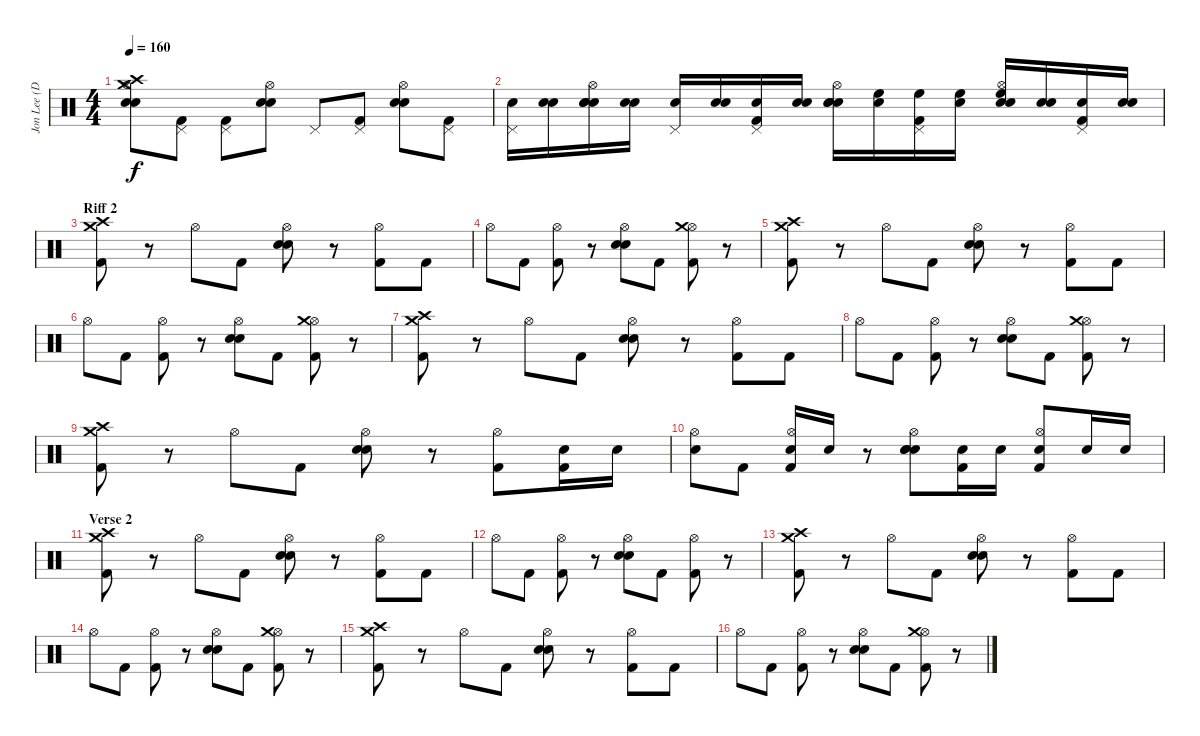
\track ("Jon Lee (Drums)" "Jon Lee (D") {instrument percussion}
\staff {score}
\articulation defaults
\ts (4 4)
\tempo 160
\clef neutral
\ks c
("Snare (hit) 2" "Electric Snare (hit)" "Crash medium (hit)" "Hi-Hat (open)" "Crash high (hit)").8{dy f} ("Kick (hit) 2" "Pedal Hi-Hat (hit)").8 ("Kick (hit) 2" "Pedal Hi-Hat (hit)").8 ("Snare (hit) 2" "Electric Snare (hit)" "Hi-Hat (open)").8 "Pedal Hi-Hat (hit)".8 ("Kick (hit) 2" "Pedal Hi-Hat (hit)").8 ("Snare (hit) 2" "Electric Snare (hit)" "Hi-Hat (open)").8 ("Kick (hit) 2" "Pedal Hi-Hat (hit)").8 |
("Electric Snare (hit)" "Pedal Hi-Hat (hit)").16 ("Electric Snare (hit)" "Snare (hit) 2").16 ("Snare (hit) 2" "Electric Snare (hit)" "Electric Snare (hit)" "Hi-Hat (open)").16 ("Electric Snare (hit)" "Snare (hit) 2").16 ("Electric Snare (hit)" "Pedal Hi-Hat (hit)").16 ("Electric Snare (hit)" "Snare (hit) 2").16 ("Kick (hit) 2" "Electric Snare (hit)" "Pedal Hi-Hat (hit)").16 ("Electric Snare (hit)" "Snare (hit) 2").16 ("Snare (hit) 2" "Electric Snare (hit)" "Electric Snare (hit)" "Hi-Hat (open)").16 ("High Floor Tom (hit)" "Snare (hit) 2").16 ("Kick (hit) 2" "High Floor Tom (hit)" "Pedal Hi-Hat (hit)").16 ("High Floor Tom (hit)" "Snare (hit) 2").16 ("Snare (hit) 2" "Electric Snare (hit)" "High Floor Tom (hit)" "Hi-Hat (open)").16 ("Electric Snare (hit)" "Snare (hit) 2").16 ("Kick (hit) 2" "Electric Snare (hit)" "Pedal Hi-Hat (hit)").16 ("Electric Snare (hit)" "Snare (hit) 2").16 |
\section ("" "Riff 2")
("Crash high (hit)" "Crash medium (hit)" "Kick (hit) 2").8 r.8 "Hi-Hat (open)".8 "Kick (hit) 2".8 ("Hi-Hat (open)" "Electric Snare (hit)" "Snare (hit) 2").8 r.8 ("Hi-Hat (open)" "Kick (hit) 2").8 "Kick (hit) 2".8 |
"Hi-Hat (open)".8 "Kick (hit) 2".8 ("Hi-Hat (open)" "Kick (hit) 2").8 r.8 ("Hi-Hat (open)" "Electric Snare (hit)" "Snare (hit) 2").8 "Kick (hit) 2".8 ("Hi-Hat (open)" "Crash medium (hit)" "Kick (hit) 2").8 r.8 |
("Crash high (hit)" "Crash medium (hit)" "Kick (hit) 2").8 r.8 "Hi-Hat (open)".8 "Kick (hit) 2".8 ("Hi-Hat (open)" "Electric Snare (hit)" "Snare (hit) 2").8 r.8 ("Hi-Hat (open)" "Kick (hit) 2").8 "Kick (hit) 2".8 |
"Hi-Hat (open)".8 "Kick (hit) 2".8 ("Hi-Hat (open)" "Kick (hit) 2").8 r.8 ("Hi-Hat (open)" "Electric Snare (hit)" "Snare (hit) 2").8 "Kick (hit) 2".8 ("Hi-Hat (open)" "Crash medium (hit)" "Kick (hit) 2").8 r.8 |
("Crash high (hit)" "Crash medium (hit)" "Kick (hit) 2").8 r.8 "Hi-Hat (open)".8 "Kick (hit) 2".8 ("Hi-Hat (open)" "Electric Snare (hit)" "Snare (hit) 2").8 r.8 ("Hi-Hat (open)" "Kick (hit) 2").8 "Kick (hit) 2".8 |
"Hi-Hat (open)".8 "Kick (hit) 2".8 ("Hi-Hat (open)" "Kick (hit) 2").8 r.8 ("Hi-Hat (open)" "Electric Snare (hit)" "Snare (hit) 2").8 "Kick (hit) 2".8 ("Hi-Hat (open)" "Crash medium (hit)" "Kick (hit) 2").8 r.8 |
("Crash high (hit)" "Crash medium (hit)" "Kick (hit) 2").8 r.8 "Hi-Hat (open)".8 "Kick (hit) 2".8 ("Hi-Hat (open)" "Electric Snare (hit)" "Snare (hit) 2").8 r.8 ("Hi-Hat (open)" "Kick (hit) 2").8 ("Electric Snare (hit)" "Kick (hit) 2").16 "Electric Snare (hit)".16 |
("Hi-Hat (open)" "Electric Snare (hit)").8 "Kick (hit) 2".8 ("Hi-Hat (open)" "Electric Snare (hit)" "Kick (hit) 2").16 "Electric Snare (hit)".16 r.8 ("Hi-Hat (open)" "Electric Snare (hit)" "Electric Snare (hit)" "Snare (hit) 2").8 ("Electric Snare (hit)" "Kick (hit) 2").16 "Electric Snare (hit)".16 ("Hi-Hat (open)" "Electric Snare (hit)" "Kick (hit) 2").8 "Electric Snare (hit)".16 "Electric Snare (hit)".16 |
\section ("" "Verse 2")
("Crash high (hit)" "Crash medium (hit)" "Kick (hit) 2").8 r.8 "Hi-Hat (open)".8 "Kick (hit) 2".8 ("Hi-Hat (open)" "Electric Snare (hit)" "Snare (hit) 2").8 r.8 ("Hi-Hat (open)" "Kick (hit) 2").8 "Kick (hit) 2".8 |
"Hi-Hat (open)".8 "Kick (hit) 2".8 ("Hi-Hat (open)" "Kick (hit) 2").8 r.8 ("Hi-Hat (open)" "Electric Snare (hit)" "Snare (hit) 2").8 "Kick (hit) 2".8 ("Hi-Hat (open)" "Kick (hit) 2").8 r.8 |
("Crash high (hit)" "Crash medium (hit)" "Kick (hit) 2").8 r.8 "Hi-Hat (open)".8 "Kick (hit) 2".8 ("Hi-Hat (open)" "Electric Snare (hit)" "Snare (hit) 2").8 r.8 ("Hi-Hat (open)" "Kick (hit) 2").8 "Kick (hit) 2".8 |
"Hi-Hat (open)".8 "Kick (hit) 2".8 ("Hi-Hat (open)" "Kick (hit) 2").8 r.8 ("Hi-Hat (open)" "Electric Snare (hit)" "Snare (hit) 2").8 "Kick (hit) 2".8 ("Hi-Hat (open)" "Crash medium (hit)" "Kick (hit) 2").8 r.8 |
("Crash high (hit)" "Crash medium (hit)" "Kick (hit) 2").8 r.8 "Hi-Hat (open)".8 "Kick (hit) 2".8 ("Hi-Hat (open)" "Electric Snare (hit)" "Snare (hit) 2").8 r.8 ("Hi-Hat (open)" "Kick (hit) 2").8 "Kick (hit) 2".8 |
"Hi-Hat (open)".8 "Kick (hit) 2".8 ("Hi-Hat (open)" "Kick (hit) 2").8 r.8 ("Hi-Hat (open)" "Electric Snare (hit)" "Snare (hit) 2").8 "Kick (hit) 2".8 ("Hi-Hat (open)" "Crash medium (hit)" "Kick (hit) 2").8 r.8
